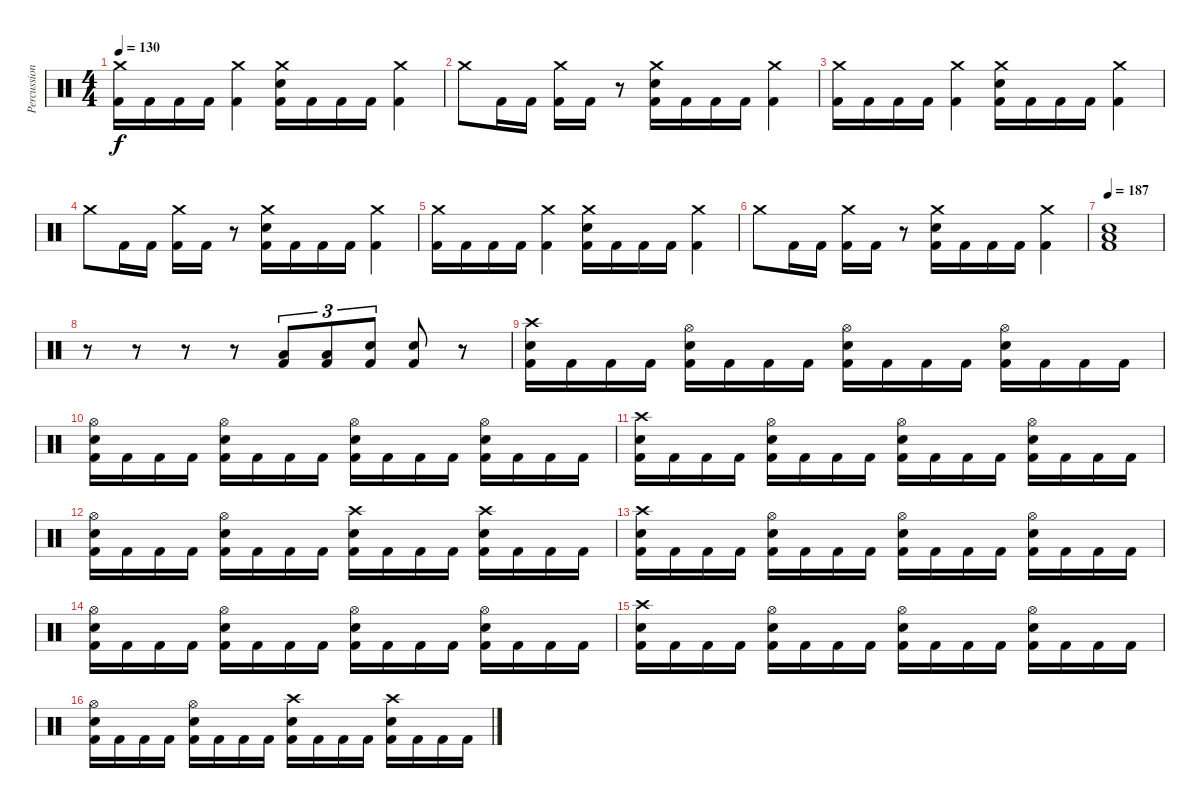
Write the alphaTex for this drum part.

\track ("Percussion" "Percussion") {instrument percussion}
\staff {score}
\articulation defaults
\ts (4 4)
\tempo 130
\clef neutral
\ks c
("Crash medium (hit)" "Kick (hit) 2").16{dy f} "Kick (hit) 2".16 "Kick (hit) 2".16 "Kick (hit) 2".16 ("Crash medium (hit)" "Kick (hit) 2").4 ("Crash medium (hit)" "Electric Snare (hit)" "Kick (hit) 2").16 "Kick (hit) 2".16 "Kick (hit) 2".16 "Kick (hit) 2".16 ("Crash medium (hit)" "Kick (hit) 2").4 |
"Crash medium (hit)".8 "Kick (hit) 2".16 "Kick (hit) 2".16 ("Crash medium (hit)" "Kick (hit) 2").16 "Kick (hit) 2".16 r.8 ("Crash medium (hit)" "Electric Snare (hit)" "Kick (hit) 2").16 "Kick (hit) 2".16 "Kick (hit) 2".16 "Kick (hit) 2".16 ("Crash medium (hit)" "Kick (hit) 2").4 |
("Crash medium (hit)" "Kick (hit) 2").16 "Kick (hit) 2".16 "Kick (hit) 2".16 "Kick (hit) 2".16 ("Crash medium (hit)" "Kick (hit) 2").4 ("Crash medium (hit)" "Electric Snare (hit)" "Kick (hit) 2").16 "Kick (hit) 2".16 "Kick (hit) 2".16 "Kick (hit) 2".16 ("Crash medium (hit)" "Kick (hit) 2").4 |
"Crash medium (hit)".8 "Kick (hit) 2".16 "Kick (hit) 2".16 ("Crash medium (hit)" "Kick (hit) 2").16 "Kick (hit) 2".16 r.8 ("Crash medium (hit)" "Electric Snare (hit)" "Kick (hit) 2").16 "Kick (hit) 2".16 "Kick (hit) 2".16 "Kick (hit) 2".16 ("Crash medium (hit)" "Kick (hit) 2").4 |
("Crash medium (hit)" "Kick (hit) 2").16 "Kick (hit) 2".16 "Kick (hit) 2".16 "Kick (hit) 2".16 ("Crash medium (hit)" "Kick (hit) 2").4 ("Crash medium (hit)" "Electric Snare (hit)" "Kick (hit) 2").16 "Kick (hit) 2".16 "Kick (hit) 2".16 "Kick (hit) 2".16 ("Crash medium (hit)" "Kick (hit) 2").4 |
"Crash medium (hit)".8 "Kick (hit) 2".16 "Kick (hit) 2".16 ("Crash medium (hit)" "Kick (hit) 2").16 "Kick (hit) 2".16 r.8 ("Crash medium (hit)" "Electric Snare (hit)" "Kick (hit) 2").16 "Kick (hit) 2".16 "Kick (hit) 2".16 "Kick (hit) 2".16 ("Crash medium (hit)" "Kick (hit) 2").4 |
\tempo 187
("Low Floor Tom (hit)" "Electric Snare (hit)" "Kick (hit) 2").1 |
r.8 r.8 r.8 r.8 ("Low Floor Tom (hit)" "Kick (hit) 2").8{tu (3 2)} ("Low Floor Tom (hit)" "Kick (hit) 2").8{tu (3 2)} ("Electric Snare (hit)" "Kick (hit) 2").8{tu (3 2)} ("Electric Snare (hit)" "Kick (hit) 2").8 r.8 |
("Crash high (hit)" "Electric Snare (hit)" "Kick (hit) 2").16 "Kick (hit) 2".16 "Kick (hit) 2".16 "Kick (hit) 2".16 ("Hi-Hat (open)" "Electric Snare (hit)" "Kick (hit) 2").16 "Kick (hit) 2".16 "Kick (hit) 2".16 "Kick (hit) 2".16 ("Hi-Hat (open)" "Electric Snare (hit)" "Kick (hit) 2").16 "Kick (hit) 2".16 "Kick (hit) 2".16 "Kick (hit) 2".16 ("Hi-Hat (open)" "Electric Snare (hit)" "Kick (hit) 2").16 "Kick (hit) 2".16 "Kick (hit) 2".16 "Kick (hit) 2".16 |
("Hi-Hat (open)" "Electric Snare (hit)" "Kick (hit) 2").16 "Kick (hit) 2".16 "Kick (hit) 2".16 "Kick (hit) 2".16 ("Hi-Hat (open)" "Electric Snare (hit)" "Kick (hit) 2").16 "Kick (hit) 2".16 "Kick (hit) 2".16 "Kick (hit) 2".16 ("Hi-Hat (open)" "Electric Snare (hit)" "Kick (hit) 2").16 "Kick (hit) 2".16 "Kick (hit) 2".16 "Kick (hit) 2".16 ("Hi-Hat (open)" "Electric Snare (hit)" "Kick (hit) 2").16 "Kick (hit) 2".16 "Kick (hit) 2".16 "Kick (hit) 2".16 |
("Crash high (hit)" "Electric Snare (hit)" "Kick (hit) 2").16 "Kick (hit) 2".16 "Kick (hit) 2".16 "Kick (hit) 2".16 ("Hi-Hat (open)" "Electric Snare (hit)" "Kick (hit) 2").16 "Kick (hit) 2".16 "Kick (hit) 2".16 "Kick (hit) 2".16 ("Hi-Hat (open)" "Electric Snare (hit)" "Kick (hit) 2").16 "Kick (hit) 2".16 "Kick (hit) 2".16 "Kick (hit) 2".16 ("Hi-Hat (open)" "Electric Snare (hit)" "Kick (hit) 2").16 "Kick (hit) 2".16 "Kick (hit) 2".16 "Kick (hit) 2".16 |
("Hi-Hat (open)" "Electric Snare (hit)" "Kick (hit) 2").16 "Kick (hit) 2".16 "Kick (hit) 2".16 "Kick (hit) 2".16 ("Hi-Hat (open)" "Electric Snare (hit)" "Kick (hit) 2").16 "Kick (hit) 2".16 "Kick (hit) 2".16 "Kick (hit) 2".16 ("Crash high (hit)" "Electric Snare (hit)" "Kick (hit) 2").16 "Kick (hit) 2".16 "Kick (hit) 2".16 "Kick (hit) 2".16 ("Crash high (hit)" "Electric Snare (hit)" "Kick (hit) 2").16 "Kick (hit) 2".16 "Kick (hit) 2".16 "Kick (hit) 2".16 |
("Crash high (hit)" "Electric Snare (hit)" "Kick (hit) 2").16 "Kick (hit) 2".16 "Kick (hit) 2".16 "Kick (hit) 2".16 ("Hi-Hat (open)" "Electric Snare (hit)" "Kick (hit) 2").16 "Kick (hit) 2".16 "Kick (hit) 2".16 "Kick (hit) 2".16 ("Hi-Hat (open)" "Electric Snare (hit)" "Kick (hit) 2").16 "Kick (hit) 2".16 "Kick (hit) 2".16 "Kick (hit) 2".16 ("Hi-Hat (open)" "Electric Snare (hit)" "Kick (hit) 2").16 "Kick (hit) 2".16 "Kick (hit) 2".16 "Kick (hit) 2".16 |
("Hi-Hat (open)" "Electric Snare (hit)" "Kick (hit) 2").16 "Kick (hit) 2".16 "Kick (hit) 2".16 "Kick (hit) 2".16 ("Hi-Hat (open)" "Electric Snare (hit)" "Kick (hit) 2").16 "Kick (hit) 2".16 "Kick (hit) 2".16 "Kick (hit) 2".16 ("Hi-Hat (open)" "Electric Snare (hit)" "Kick (hit) 2").16 "Kick (hit) 2".16 "Kick (hit) 2".16 "Kick (hit) 2".16 ("Hi-Hat (open)" "Electric Snare (hit)" "Kick (hit) 2").16 "Kick (hit) 2".16 "Kick (hit) 2".16 "Kick (hit) 2".16 |
("Crash high (hit)" "Electric Snare (hit)" "Kick (hit) 2").16 "Kick (hit) 2".16 "Kick (hit) 2".16 "Kick (hit) 2".16 ("Hi-Hat (open)" "Electric Snare (hit)" "Kick (hit) 2").16 "Kick (hit) 2".16 "Kick (hit) 2".16 "Kick (hit) 2".16 ("Hi-Hat (open)" "Electric Snare (hit)" "Kick (hit) 2").16 "Kick (hit) 2".16 "Kick (hit) 2".16 "Kick (hit) 2".16 ("Hi-Hat (open)" "Electric Snare (hit)" "Kick (hit) 2").16 "Kick (hit) 2".16 "Kick (hit) 2".16 "Kick (hit) 2".16 |
("Hi-Hat (open)" "Electric Snare (hit)" "Kick (hit) 2").16 "Kick (hit) 2".16 "Kick (hit) 2".16 "Kick (hit) 2".16 ("Hi-Hat (open)" "Electric Snare (hit)" "Kick (hit) 2").16 "Kick (hit) 2".16 "Kick (hit) 2".16 "Kick (hit) 2".16 ("Crash high (hit)" "Electric Snare (hit)" "Kick (hit) 2").16 "Kick (hit) 2".16 "Kick (hit) 2".16 "Kick (hit) 2".16 ("Crash high (hit)" "Electric Snare (hit)" "Kick (hit) 2").16 "Kick (hit) 2".16 "Kick (hit) 2".16 "Kick (hit) 2".16
